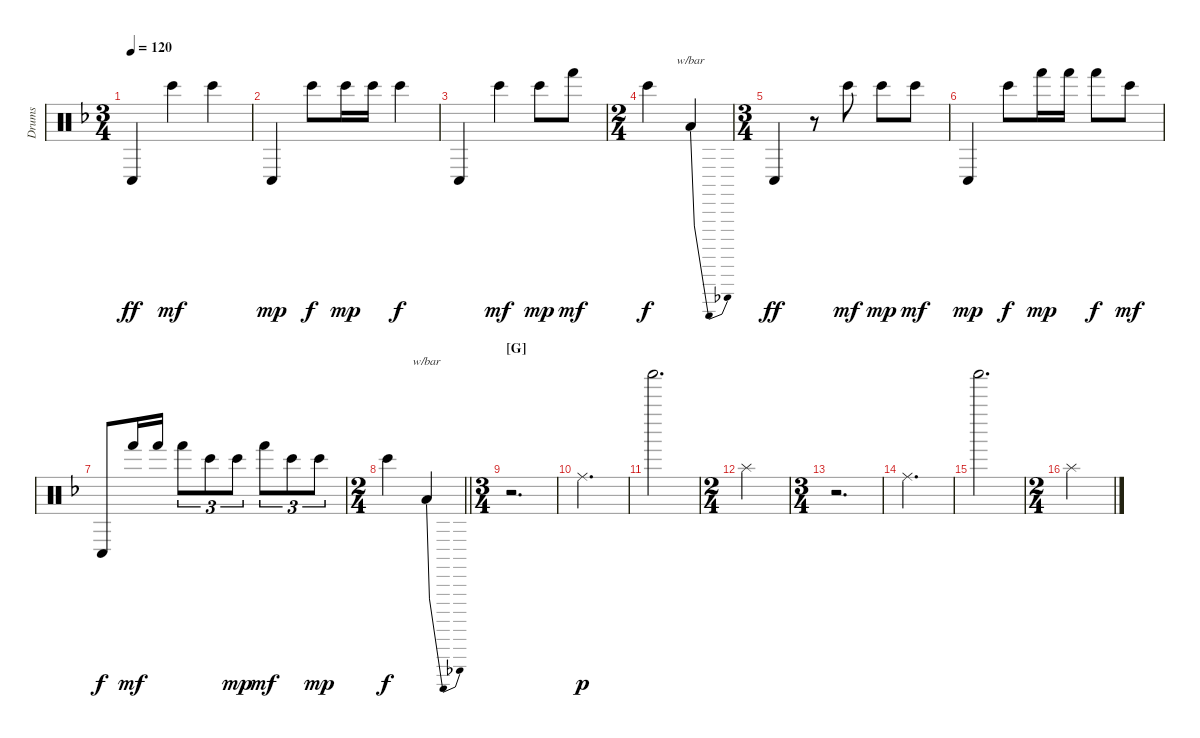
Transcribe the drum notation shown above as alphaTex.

\track ("Drums" "Drums") {instrument percussion}
\staff {score}
\articulation defaults
\ts (3 4)
\tempo 120
\clef neutral
\ks dminor "Conga low (hit)".4{dy ff} "Bongo High (hit)".4{dy mf} "Bongo High (hit)".4
|
"Conga low (hit)".4{dy mp} "Bongo High (hit)".8{dy f} "Bongo High (hit)".16{dy mp} "Bongo High (hit)".16 "Bongo High (hit)".4{dy f} |
"Conga low (hit)".4 "Bongo High (hit)".4{dy mf} "Bongo High (hit)".8{dy mp} "Hand (hit)".8{dy mf} |
\ts (2 4)
"Bongo High (hit)".4{dy f} "Low Tom (hit)".4{tbe (dip default 0 0 30 -12 60 0)} |
\ts (3 4)
"Conga low (hit)".4{dy ff} r.8 "Bongo High (hit)".8{dy mf} "Bongo High (hit)".8{dy mp} "Bongo High (hit)".8{dy mf} |
"Conga low (hit)".4{dy mp} "Bongo High (hit)".8{dy f} "Hand (hit)".16{dy mp} "Hand (hit)".16 "Hand (hit)".8{dy f} "Bongo High (hit)".8{dy mf} |
"Conga low (hit)".8{dy f} "Hand (hit)".16{dy mf} "Hand (hit)".16 "Hand (hit)".8{tu (3 2)} "Bongo High (hit)".8{tu (3 2)} "Bongo High (hit)".8{tu (3 2) dy mp} "Hand (hit)".8{tu (3 2) dy mf} "Bongo High (hit)".8{tu (3 2)} "Bongo High (hit)".8{tu (3 2) dy mp} |
\ts (2 4)
\barLineRight lightlight "Bongo High (hit)".4{dy f} "Low Tom (hit)".4{tbe (dip default 0 0 30 -12 60 0)}
|
\ts (3 4)
\section ("" "[G]")
r.2{d} |
"Ride (middle)".2{d dy p} |
"Shaker (hit)".2{d} |
\ts (2 4)
"Splash (hit)".2 |
\ts (3 4)
r.2{d} |
"Ride (middle)".2{d} |
"Shaker (hit)".2{d} |
\ts (2 4)
"Splash (hit)".2
